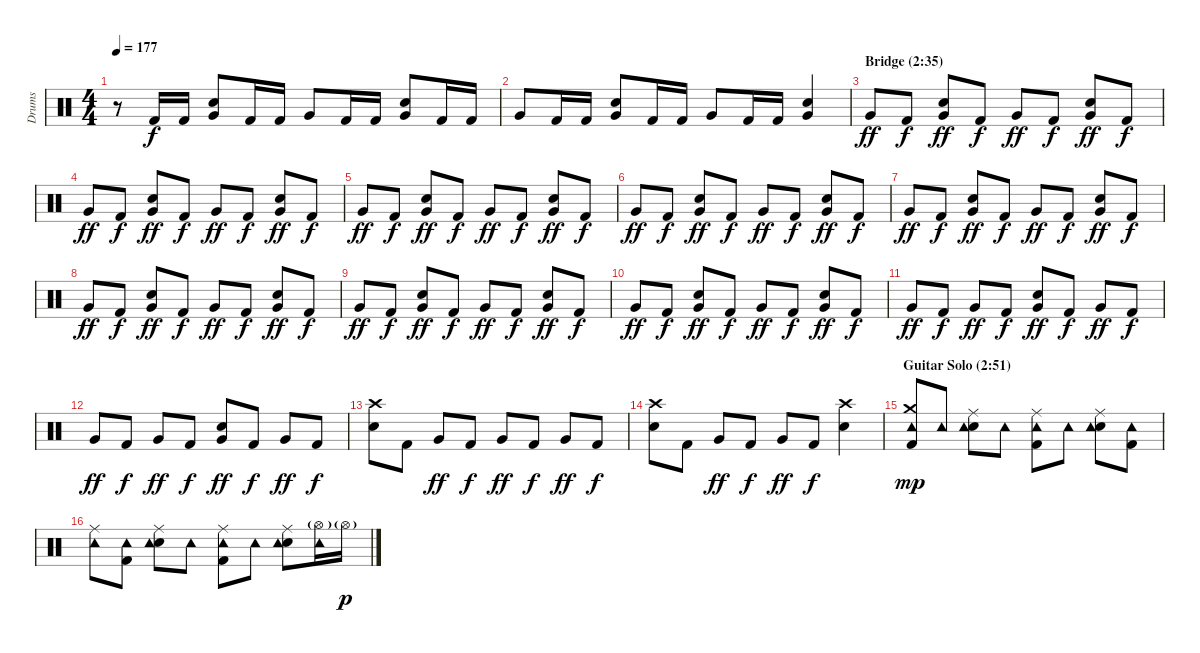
\track ("Drums" "Drums") {instrument percussion}
\staff {score}
\articulation defaults
\ts (4 4)
\tempo 177
\clef neutral
\ks c
r.8{dy f} "Kick (hit) 2".16 "Kick (hit) 2".16 ("Snare (hit) 2" "Very Low Tom (hit)").8 "Kick (hit) 2".16 "Kick (hit) 2".16 "Very Low Tom (hit)".8 "Kick (hit) 2".16 "Kick (hit) 2".16 ("Snare (hit) 2" "Very Low Tom (hit)").8 "Kick (hit) 2".16 "Kick (hit) 2".16 |
"Very Low Tom (hit)".8 "Kick (hit) 2".16 "Kick (hit) 2".16 ("Snare (hit) 2" "Very Low Tom (hit)").8 "Kick (hit) 2".16 "Kick (hit) 2".16 "Very Low Tom (hit)".8 "Kick (hit) 2".16 "Kick (hit) 2".16 ("Snare (hit) 2" "Very Low Tom (hit)").4 |
\section ("" "Bridge (2:35)")
"Very Low Tom (hit)".8{dy ff} "Kick (hit) 2".8{dy f} ("Snare (hit) 2" "Very Low Tom (hit)").8{dy ff} "Kick (hit) 2".8{dy f} "Very Low Tom (hit)".8{dy ff} "Kick (hit) 2".8{dy f} ("Snare (hit) 2" "Very Low Tom (hit)").8{dy ff} "Kick (hit) 2".8{dy f} |
"Very Low Tom (hit)".8{dy ff} "Kick (hit) 2".8{dy f} ("Snare (hit) 2" "Very Low Tom (hit)").8{dy ff} "Kick (hit) 2".8{dy f} "Very Low Tom (hit)".8{dy ff} "Kick (hit) 2".8{dy f} ("Snare (hit) 2" "Very Low Tom (hit)").8{dy ff} "Kick (hit) 2".8{dy f} |
"Very Low Tom (hit)".8{dy ff} "Kick (hit) 2".8{dy f} ("Snare (hit) 2" "Very Low Tom (hit)").8{dy ff} "Kick (hit) 2".8{dy f} "Very Low Tom (hit)".8{dy ff} "Kick (hit) 2".8{dy f} ("Snare (hit) 2" "Very Low Tom (hit)").8{dy ff} "Kick (hit) 2".8{dy f} |
"Very Low Tom (hit)".8{dy ff} "Kick (hit) 2".8{dy f} ("Snare (hit) 2" "Very Low Tom (hit)").8{dy ff} "Kick (hit) 2".8{dy f} "Very Low Tom (hit)".8{dy ff} "Kick (hit) 2".8{dy f} ("Snare (hit) 2" "Very Low Tom (hit)").8{dy ff} "Kick (hit) 2".8{dy f} |
"Very Low Tom (hit)".8{dy ff} "Kick (hit) 2".8{dy f} ("Snare (hit) 2" "Very Low Tom (hit)").8{dy ff} "Kick (hit) 2".8{dy f} "Very Low Tom (hit)".8{dy ff} "Kick (hit) 2".8{dy f} ("Snare (hit) 2" "Very Low Tom (hit)").8{dy ff} "Kick (hit) 2".8{dy f} |
"Very Low Tom (hit)".8{dy ff} "Kick (hit) 2".8{dy f} ("Snare (hit) 2" "Very Low Tom (hit)").8{dy ff} "Kick (hit) 2".8{dy f} "Very Low Tom (hit)".8{dy ff} "Kick (hit) 2".8{dy f} ("Snare (hit) 2" "Very Low Tom (hit)").8{dy ff} "Kick (hit) 2".8{dy f} |
"Very Low Tom (hit)".8{dy ff} "Kick (hit) 2".8{dy f} ("Snare (hit) 2" "Very Low Tom (hit)").8{dy ff} "Kick (hit) 2".8{dy f} "Very Low Tom (hit)".8{dy ff} "Kick (hit) 2".8{dy f} ("Snare (hit) 2" "Very Low Tom (hit)").8{dy ff} "Kick (hit) 2".8{dy f} |
"Very Low Tom (hit)".8{dy ff} "Kick (hit) 2".8{dy f} ("Snare (hit) 2" "Very Low Tom (hit)").8{dy ff} "Kick (hit) 2".8{dy f} "Very Low Tom (hit)".8{dy ff} "Kick (hit) 2".8{dy f} ("Snare (hit) 2" "Very Low Tom (hit)").8{dy ff} "Kick (hit) 2".8{dy f} |
"Very Low Tom (hit)".8{dy ff} "Kick (hit) 2".8{dy f} "Very Low Tom (hit)".8{dy ff} "Kick (hit) 2".8{dy f} ("Snare (hit) 2" "Very Low Tom (hit)").8{dy ff} "Kick (hit) 2".8{dy f} "Very Low Tom (hit)".8{dy ff} "Kick (hit) 2".8{dy f} |
"Very Low Tom (hit)".8{dy ff} "Kick (hit) 2".8{dy f} "Very Low Tom (hit)".8{dy ff} "Kick (hit) 2".8{dy f} ("Snare (hit) 2" "Very Low Tom (hit)").8{dy ff} "Kick (hit) 2".8{dy f} "Very Low Tom (hit)".8{dy ff} "Kick (hit) 2".8{dy f} |
("Crash high (hit)" "Snare (hit) 2").8 "Kick (hit) 2".8 "Very Low Tom (hit)".8{dy ff} "Kick (hit) 2".8{dy f} "Very Low Tom (hit)".8{dy ff} "Kick (hit) 2".8{dy f} "Very Low Tom (hit)".8{dy ff} "Kick (hit) 2".8{dy f} |
("Crash high (hit)" "Snare (hit) 2").8 "Kick (hit) 2".8 "Very Low Tom (hit)".8{dy ff} "Kick (hit) 2".8{dy f} "Very Low Tom (hit)".8{dy ff} "Kick (hit) 2".8{dy f} ("Crash high (hit)" "Snare (hit) 2").4 |
\section ("" "Guitar Solo (2:51)")
("Crash medium (hit)" "Tambourine (hit)" "Kick (hit) 2").8{dy mp} "Tambourine (hit)".8 ("Ride (middle)" "Snare (hit) 2" "Tambourine (hit)").8 "Tambourine (hit)".8 ("Ride (middle)" "Tambourine (hit)" "Kick (hit) 2").8 "Tambourine (hit)".8 ("Ride (middle)" "Snare (hit) 2" "Tambourine (hit)").8 ("Tambourine (hit)" "Kick (hit) 2").8 |
("Ride (middle)" "Tambourine (hit)").8 ("Tambourine (hit)" "Kick (hit) 2").8 ("Ride (middle)" "Snare (hit) 2" "Tambourine (hit)").8 "Tambourine (hit)".8 ("Ride (middle)" "Tambourine (hit)" "Kick (hit) 2").8 "Tambourine (hit)".8 ("Ride (middle)" "Snare (hit) 2" "Tambourine (hit)").8 ("Hi-Hat (open)"{g} "Tambourine (hit)").16 "Hi-Hat (open)"{g}.16{dy p}
